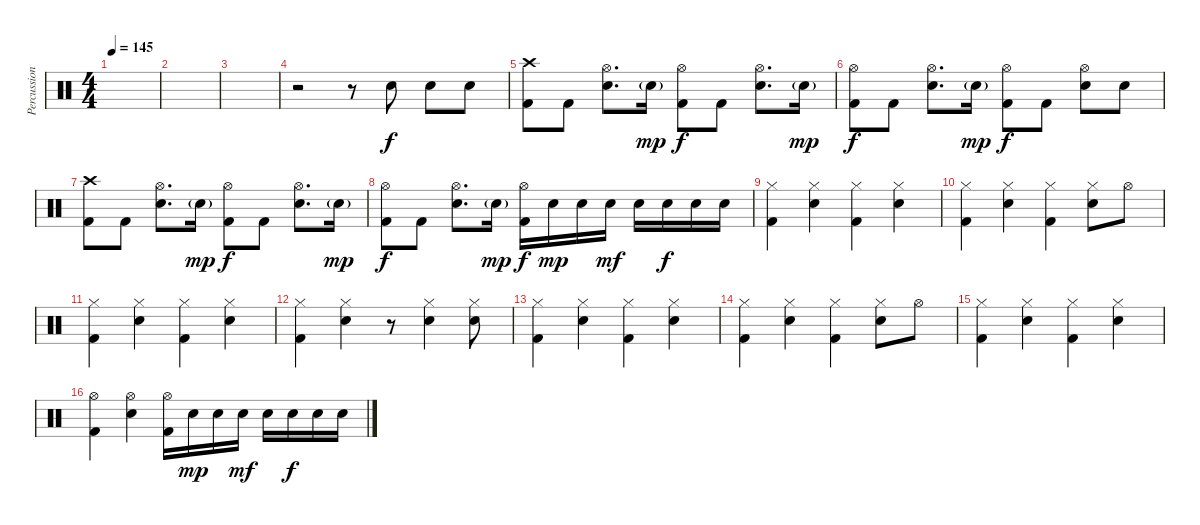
\track ("Percussion" "Percussion") {instrument percussion}
\staff {score}
\articulation defaults
\ts (4 4)
\tempo 145
\clef neutral
\ks c
|
|
|
r.2 r.8 "Electric Snare (hit)".8 "Electric Snare (hit)".8 "Electric Snare (hit)".8 |
("Crash high (hit)" "Kick (hit) 2").8 "Kick (hit) 2".8 ("Hi-Hat (open)" "Electric Snare (hit)").8{d} "Electric Snare (hit)"{g}.16{dy mp} ("Hi-Hat (open)" "Kick (hit) 2").8{dy f} "Kick (hit) 2".8 ("Hi-Hat (open)" "Electric Snare (hit)").8{d} "Electric Snare (hit)"{g}.16{dy mp} |
("Hi-Hat (open)" "Kick (hit) 2").8{dy f} "Kick (hit) 2".8 ("Hi-Hat (open)" "Electric Snare (hit)").8{d} "Electric Snare (hit)"{g}.16{dy mp} ("Hi-Hat (open)" "Kick (hit) 2").8{dy f} "Kick (hit) 2".8 ("Hi-Hat (open)" "Electric Snare (hit)").8 "Electric Snare (hit)".8 |
("Crash high (hit)" "Kick (hit) 2").8 "Kick (hit) 2".8 ("Hi-Hat (open)" "Electric Snare (hit)").8{d} "Electric Snare (hit)"{g}.16{dy mp} ("Hi-Hat (open)" "Kick (hit) 2").8{dy f} "Kick (hit) 2".8 ("Hi-Hat (open)" "Electric Snare (hit)").8{d} "Electric Snare (hit)"{g}.16{dy mp} |
("Hi-Hat (open)" "Kick (hit) 2").8{dy f} "Kick (hit) 2".8 ("Hi-Hat (open)" "Electric Snare (hit)").8{d} "Electric Snare (hit)"{g}.16{dy mp} ("Hi-Hat (open)" "Kick (hit) 2").16{dy f} "Electric Snare (hit)".16{dy mp} "Electric Snare (hit)".16 "Electric Snare (hit)".16{dy mf} "Electric Snare (hit)".16 "Electric Snare (hit)".16{dy f} "Electric Snare (hit)".16 "Electric Snare (hit)".16 |
("Hi-Hat (closed)" "Kick (hit) 2").4 ("Hi-Hat (closed)" "Electric Snare (hit)").4 ("Hi-Hat (closed)" "Kick (hit) 2").4 ("Hi-Hat (closed)" "Electric Snare (hit)").4 |
("Hi-Hat (closed)" "Kick (hit) 2").4 ("Hi-Hat (closed)" "Electric Snare (hit)").4 ("Hi-Hat (closed)" "Kick (hit) 2").4 ("Hi-Hat (closed)" "Electric Snare (hit)").8 "Hi-Hat (open)".8 |
("Hi-Hat (closed)" "Kick (hit) 2").4 ("Hi-Hat (closed)" "Electric Snare (hit)").4 ("Hi-Hat (closed)" "Kick (hit) 2").4 ("Hi-Hat (closed)" "Electric Snare (hit)").4 |
("Hi-Hat (closed)" "Kick (hit) 2").4 ("Hi-Hat (closed)" "Electric Snare (hit)").4 r.8 ("Hi-Hat (closed)" "Electric Snare (hit)").4 ("Hi-Hat (closed)" "Electric Snare (hit)").8 |
("Hi-Hat (closed)" "Kick (hit) 2").4 ("Hi-Hat (closed)" "Electric Snare (hit)").4 ("Hi-Hat (closed)" "Kick (hit) 2").4 ("Hi-Hat (closed)" "Electric Snare (hit)").4 |
("Hi-Hat (closed)" "Kick (hit) 2").4 ("Hi-Hat (closed)" "Electric Snare (hit)").4 ("Hi-Hat (closed)" "Kick (hit) 2").4 ("Hi-Hat (closed)" "Electric Snare (hit)").8 "Hi-Hat (open)".8 |
("Hi-Hat (closed)" "Kick (hit) 2").4 ("Hi-Hat (closed)" "Electric Snare (hit)").4 ("Hi-Hat (closed)" "Kick (hit) 2").4 ("Hi-Hat (closed)" "Electric Snare (hit)").4 |
("Hi-Hat (open)" "Kick (hit) 2").4 ("Hi-Hat (open)" "Electric Snare (hit)").4 ("Hi-Hat (open)" "Kick (hit) 2").16 "Electric Snare (hit)".16{dy mp} "Electric Snare (hit)".16 "Electric Snare (hit)".16{dy mf} "Electric Snare (hit)".16 "Electric Snare (hit)".16{dy f} "Electric Snare (hit)".16 "Electric Snare (hit)".16
